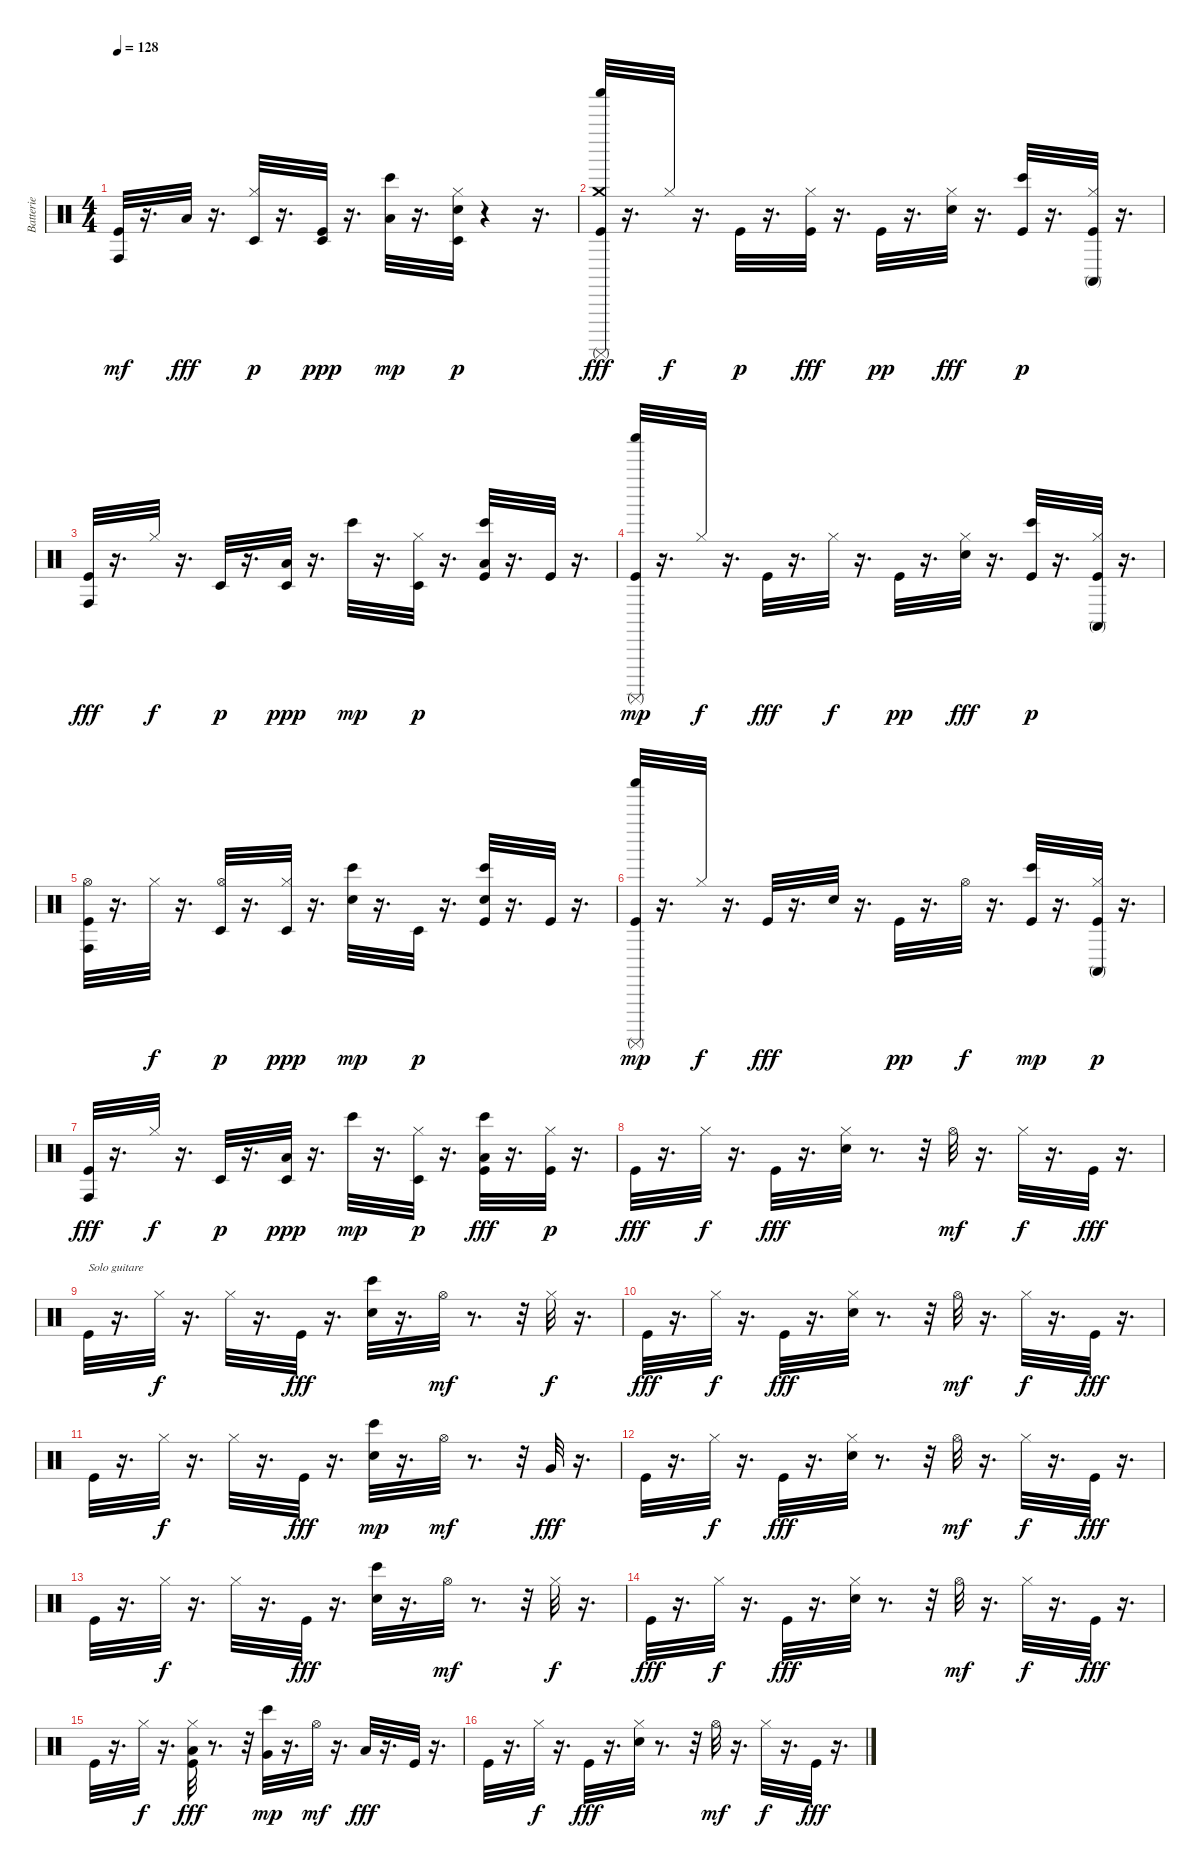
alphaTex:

\track ("Batterie" "Batterie") {instrument percussion}
\staff {score}
\articulation defaults
\ts (4 4)
\tempo 128
\clef neutral
\ks c
("Kick (hit)" "Conga high (hit)").32{dy mf} r.16{d} "Low Tom (hit)".32{dy fff} r.16{d} ("Timbale low (hit)" "Hi-Hat (closed)").32{dy p} r.16{d} ("Kick (hit)" "Timbale low (hit)").32{dy ppp} r.16{d} ("Low Tom (hit)" "Bongo High (hit)").32{dy mp} r.16{d} ("Electric Snare (hit)" "Timbale low (hit)" "Hi-Hat (closed)").32{dy p} r.4 r.16{d} |
("Shaker (hit)" "Crash medium (hit)" "Surdo (mute)" "Kick (hit)").32{dy fff} r.16{d} "Hi-Hat (closed)".32{dy f} r.16{d} "Kick (hit)".32{dy p} r.16{d} ("Hi-Hat (closed)" "Kick (hit)").32{dy fff} r.16{d} "Kick (hit)".32{dy pp} r.16{d} ("Electric Snare (hit)" "Hi-Hat (closed)").32{dy fff} r.16{d} ("Bongo High (hit)" "Kick (hit)").32{dy p} r.16{d} ("Kick (hit)" "Hi-Hat (closed)" "Conga high (mute)").32 r.16{d} |
("Conga high (hit)" "Kick (hit)").32{dy fff} r.16{d} "Hi-Hat (closed)".32{dy f} r.16{d} "Timbale low (hit)".32{dy p} r.16{d} ("Low Tom (hit)" "Timbale low (hit)").32{dy ppp} r.16{d} "Bongo High (hit)".32{dy mp} r.16{d} ("Hi-Hat (closed)" "Timbale low (hit)").32{dy p} r.16{d} ("Bongo High (hit)" "Low Floor Tom (hit)" "Kick (hit)").32 r.16{d} "Kick (hit)".32 r.16{d} |
("Surdo (mute)" "Kick (hit)" "Shaker (hit)").32{dy mp} r.16{d} "Hi-Hat (closed)".32{dy f} r.16{d} "Kick (hit)".32{dy fff} r.16{d} "Hi-Hat (closed)".32{dy f} r.16{d} "Kick (hit)".32{dy pp} r.16{d} ("Electric Snare (hit)" "Hi-Hat (closed)").32{dy fff} r.16{d} ("Bongo High (hit)" "Kick (hit)").32{dy p} r.16{d} ("Kick (hit)" "Conga high (mute)" "Hi-Hat (closed)").32 r.16{d} |
("Hi-Hat (open)" "Conga high (hit)" "Kick (hit)").32 r.16{d} "Hi-Hat (closed)".32{dy f} r.16{d} ("Hi-Hat (open)" "Timbale low (hit)").32{dy p} r.16{d} ("Hi-Hat (closed)" "Timbale low (hit)").32{dy ppp} r.16{d} ("Electric Snare (hit)" "Bongo High (hit)").32{dy mp} r.16{d} "Timbale low (hit)".32{dy p} r.16{d} ("Bongo High (hit)" "Electric Snare (hit)" "Kick (hit)").32 r.16{d} "Kick (hit)".32 r.16{d} |
("Shaker (hit)" "Kick (hit)" "Surdo (mute)").32{dy mp} r.16{d} "Hi-Hat (closed)".32{dy f} r.16{d} "Kick (hit)".32{dy fff} r.16{d} "Electric Snare (hit)".32 r.16{d} "Kick (hit)".32{dy pp} r.16{d} "Hi-Hat (open)".32{dy f} r.16{d} ("Kick (hit)" "Bongo High (hit)").32{dy mp} r.16{d} ("Conga high (mute)" "Kick (hit)" "Hi-Hat (closed)").32{dy p} r.16{d} |
("Conga high (hit)" "Kick (hit)").32{dy fff} r.16{d} "Hi-Hat (closed)".32{dy f} r.16{d} "Timbale low (hit)".32{dy p} r.16{d} ("Low Tom (hit)" "Timbale low (hit)").32{dy ppp} r.16{d} "Bongo High (hit)".32{dy mp} r.16{d} ("Timbale low (hit)" "Hi-Hat (closed)").32{dy p} r.16{d} ("Kick (hit)" "Bongo High (hit)" "Low Floor Tom (hit)").32{dy fff} r.16{d} ("Hi-Hat (closed)" "Kick (hit)").32{dy p} r.16{d} |
"Kick (hit)".32{dy fff} r.16{d} "Hi-Hat (closed)".32{dy f} r.16{d} "Kick (hit)".32{dy fff} r.16{d} ("Hi-Hat (closed)" "Electric Snare (hit)").32 r.8{d} r.32 "Hi-Hat (open)".32{dy mf} r.16{d} "Hi-Hat (closed)".32{dy f} r.16{d} "Kick (hit)".32{dy fff} r.16{d} |
"Kick (hit)".32{txt "Solo guitare"} r.16{d} "Hi-Hat (closed)".32{dy f} r.16{d} "Hi-Hat (closed)".32 r.16{d} "Kick (hit)".32{dy fff} r.16{d} ("Bongo High (hit)" "Electric Snare (hit)").32 r.16{d} "Hi-Hat (open)".32{dy mf} r.8{d} r.32 "Hi-Hat (closed)".32{dy f} r.16{d} |
"Kick (hit)".32{dy fff} r.16{d} "Hi-Hat (closed)".32{dy f} r.16{d} "Kick (hit)".32{dy fff} r.16{d} ("Electric Snare (hit)" "Hi-Hat (closed)").32 r.8{d} r.32 "Hi-Hat (open)".32{dy mf} r.16{d} "Hi-Hat (closed)".32{dy f} r.16{d} "Kick (hit)".32{dy fff} r.16{d} |
"Kick (hit)".32 r.16{d} "Hi-Hat (closed)".32{dy f} r.16{d} "Hi-Hat (closed)".32 r.16{d} "Kick (hit)".32{dy fff} r.16{d} ("Electric Snare (hit)" "Bongo High (hit)").32{dy mp} r.16{d} "Hi-Hat (open)".32{dy mf} r.8{d} r.32 "Very Low Tom (hit)".32{dy fff} r.16{d} |
"Kick (hit)".32 r.16{d} "Hi-Hat (closed)".32{dy f} r.16{d} "Kick (hit)".32{dy fff} r.16{d} ("Hi-Hat (closed)" "Electric Snare (hit)").32 r.8{d} r.32 "Hi-Hat (open)".32{dy mf} r.16{d} "Hi-Hat (closed)".32{dy f} r.16{d} "Kick (hit)".32{dy fff} r.16{d} |
"Kick (hit)".32 r.16{d} "Hi-Hat (closed)".32{dy f} r.16{d} "Hi-Hat (closed)".32 r.16{d} "Kick (hit)".32{dy fff} r.16{d} ("Bongo High (hit)" "Electric Snare (hit)").32 r.16{d} "Hi-Hat (open)".32{dy mf} r.8{d} r.32 "Hi-Hat (closed)".32{dy f} r.16{d} |
"Kick (hit)".32{dy fff} r.16{d} "Hi-Hat (closed)".32{dy f} r.16{d} "Kick (hit)".32{dy fff} r.16{d} ("Electric Snare (hit)" "Hi-Hat (closed)").32 r.8{d} r.32 "Hi-Hat (open)".32{dy mf} r.16{d} "Hi-Hat (closed)".32{dy f} r.16{d} "Kick (hit)".32{dy fff} r.16{d} |
"Kick (hit)".32 r.16{d} "Hi-Hat (closed)".32{dy f} r.16{d} ("Low Tom (hit)" "Kick (hit)" "Hi-Hat (closed)").32{dy fff} r.8{d} r.32 ("Very Low Tom (hit)" "Bongo High (hit)").32{dy mp} r.16{d} "Hi-Hat (open)".32{dy mf} r.16{d} "Low Floor Tom (hit)".32{dy fff} r.16{d} "Kick (hit)".32 r.16{d} |
"Kick (hit)".32 r.16{d} "Hi-Hat (closed)".32{dy f} r.16{d} "Kick (hit)".32{dy fff} r.16{d} ("Hi-Hat (closed)" "Electric Snare (hit)").32 r.8{d} r.32 "Hi-Hat (open)".32{dy mf} r.16{d} "Hi-Hat (closed)".32{dy f} r.16{d} "Kick (hit)".32{dy fff} r.16{d}
